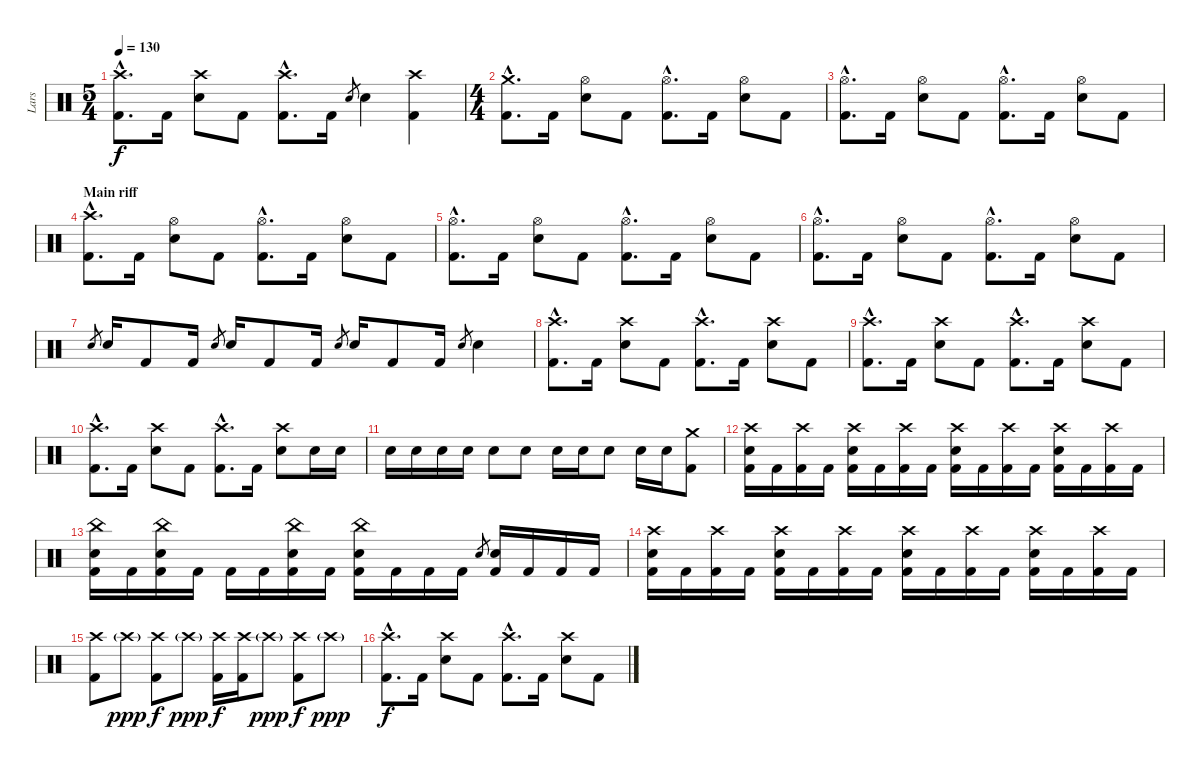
\track ("Lars" "Lars") {instrument percussion}
\staff {score}
\articulation defaults
\ts (5 4)
\tempo 130
\clef neutral
\ks c
("Kick (hit) 2"{hac} "Crash high (hit)"{hac}).8{d dy f} "Kick (hit) 2".16 ("Electric Snare (hit)" "Crash high (hit)").8 "Kick (hit) 2".8 ("Kick (hit) 2"{hac} "Crash high (hit)"{hac}).8{d} "Kick (hit) 2".16 "Electric Snare (hit)".8{gr} "Electric Snare (hit)".4 ("Kick (hit) 2" "Crash high (hit)").4 |
\ts (4 4)
\section ("" "")
("Kick (hit) 2"{hac} "Crash medium (hit)"{hac}).8{d} "Kick (hit) 2".16 ("Electric Snare (hit)" "Hi-Hat (open)").8 "Kick (hit) 2".8 ("Kick (hit) 2"{hac} "Hi-Hat (open)"{hac}).8{d} "Kick (hit) 2".16 ("Electric Snare (hit)" "Hi-Hat (open)").8 "Kick (hit) 2".8 |
("Kick (hit) 2"{hac} "Hi-Hat (open)"{hac}).8{d} "Kick (hit) 2".16 ("Electric Snare (hit)" "Hi-Hat (open)").8 "Kick (hit) 2".8 ("Kick (hit) 2"{hac} "Hi-Hat (open)"{hac}).8{d} "Kick (hit) 2".16 ("Electric Snare (hit)" "Hi-Hat (open)").8 "Kick (hit) 2".8 |
\section ("" "Main riff")
("Kick (hit) 2"{hac} "Crash high (hit)"{hac}).8{d} "Kick (hit) 2".16 ("Electric Snare (hit)" "Hi-Hat (open)").8 "Kick (hit) 2".8 ("Kick (hit) 2"{hac} "Hi-Hat (open)"{hac}).8{d} "Kick (hit) 2".16 ("Electric Snare (hit)" "Hi-Hat (open)").8 "Kick (hit) 2".8 |
("Kick (hit) 2"{hac} "Hi-Hat (open)"{hac}).8{d} "Kick (hit) 2".16 ("Electric Snare (hit)" "Hi-Hat (open)").8 "Kick (hit) 2".8 ("Kick (hit) 2"{hac} "Hi-Hat (open)"{hac}).8{d} "Kick (hit) 2".16 ("Electric Snare (hit)" "Hi-Hat (open)").8 "Kick (hit) 2".8 |
("Kick (hit) 2"{hac} "Hi-Hat (open)"{hac}).8{d} "Kick (hit) 2".16 ("Electric Snare (hit)" "Hi-Hat (open)").8 "Kick (hit) 2".8 ("Kick (hit) 2"{hac} "Hi-Hat (open)"{hac}).8{d} "Kick (hit) 2".16 ("Electric Snare (hit)" "Hi-Hat (open)").8 "Kick (hit) 2".8 |
"Electric Snare (hit)".8{gr} "Electric Snare (hit)".16 "Kick (hit) 2".8 "Kick (hit) 2".16 "Electric Snare (hit)".8{gr} "Electric Snare (hit)".16 "Kick (hit) 2".8 "Kick (hit) 2".16 "Electric Snare (hit)".8{gr} "Electric Snare (hit)".16 "Kick (hit) 2".8 "Kick (hit) 2".16 "Electric Snare (hit)".8{gr} "Electric Snare (hit)".4 |
\section ("" "")
("Kick (hit) 2"{hac} "Crash high (hit)"{hac}).8{d} "Kick (hit) 2".16 ("Electric Snare (hit)" "Crash high (hit)").8 "Kick (hit) 2".8 ("Kick (hit) 2"{hac} "Crash high (hit)"{hac}).8{d} "Kick (hit) 2".16 ("Electric Snare (hit)" "Crash high (hit)").8 "Kick (hit) 2".8 |
("Kick (hit) 2"{hac} "Crash high (hit)"{hac}).8{d} "Kick (hit) 2".16 ("Electric Snare (hit)" "Crash high (hit)").8 "Kick (hit) 2".8 ("Kick (hit) 2"{hac} "Crash high (hit)"{hac}).8{d} "Kick (hit) 2".16 ("Electric Snare (hit)" "Crash high (hit)").8 "Kick (hit) 2".8 |
("Kick (hit) 2"{hac} "Crash high (hit)"{hac}).8{d} "Kick (hit) 2".16 ("Electric Snare (hit)" "Crash high (hit)").8 "Kick (hit) 2".8 ("Kick (hit) 2"{hac} "Crash high (hit)"{hac}).8{d} "Kick (hit) 2".16 ("Electric Snare (hit)" "Crash high (hit)").8 "Electric Snare (hit)".16 "Electric Snare (hit)".16 |
"Electric Snare (hit)".16 "Electric Snare (hit)".16 "Electric Snare (hit)".16 "Electric Snare (hit)".16 "Electric Snare (hit)".8 "Electric Snare (hit)".8 "Electric Snare (hit)".16 "Electric Snare (hit)".16 "Electric Snare (hit)".8 "Electric Snare (hit)".16 "Electric Snare (hit)".16 ("Kick (hit) 2" "Crash medium (hit)").8 |
\section ("" "")
("Kick (hit) 2" "Electric Snare (hit)" "Crash high (hit)").16 "Kick (hit) 2".16 ("Kick (hit) 2" "Crash high (hit)").16 "Kick (hit) 2".16 ("Kick (hit) 2" "Electric Snare (hit)" "Crash high (hit)").16 "Kick (hit) 2".16 ("Kick (hit) 2" "Crash high (hit)").16 "Kick (hit) 2".16 ("Kick (hit) 2" "Electric Snare (hit)" "Crash high (hit)").16 "Kick (hit) 2".16 ("Kick (hit) 2" "Crash high (hit)").16 "Kick (hit) 2".16 ("Kick (hit) 2" "Electric Snare (hit)" "Crash high (hit)").16 "Kick (hit) 2".16 ("Kick (hit) 2" "Crash high (hit)").16 "Kick (hit) 2".16 |
("Kick (hit) 2" "Electric Snare (hit)" "China (hit)").16 "Kick (hit) 2".16 ("Kick (hit) 2" "Electric Snare (hit)" "China (hit)").16 "Kick (hit) 2".16 "Kick (hit) 2".16 "Kick (hit) 2".16 ("Kick (hit) 2" "Electric Snare (hit)" "China (hit)").16 "Kick (hit) 2".16 ("Kick (hit) 2" "Electric Snare (hit)" "China (hit)").16 "Kick (hit) 2".16 "Kick (hit) 2".16 "Kick (hit) 2".16 "Electric Snare (hit)".8{gr} ("Kick (hit) 2" "Electric Snare (hit)").16 "Kick (hit) 2".16 "Kick (hit) 2".16 "Kick (hit) 2".16 |
("Kick (hit) 2" "Electric Snare (hit)" "Crash high (hit)").16 "Kick (hit) 2".16 ("Kick (hit) 2" "Crash high (hit)").16 "Kick (hit) 2".16 ("Kick (hit) 2" "Electric Snare (hit)" "Crash high (hit)").16 "Kick (hit) 2".16 ("Kick (hit) 2" "Crash high (hit)").16 "Kick (hit) 2".16 ("Kick (hit) 2" "Electric Snare (hit)" "Crash high (hit)").16 "Kick (hit) 2".16 ("Kick (hit) 2" "Crash high (hit)").16 "Kick (hit) 2".16 ("Kick (hit) 2" "Electric Snare (hit)" "Crash high (hit)").16 "Kick (hit) 2".16 ("Kick (hit) 2" "Crash high (hit)").16 "Kick (hit) 2".16 |
("Kick (hit) 2" "Crash high (hit)").8 "Crash high (hit)"{g}.8{dy ppp} ("Kick (hit) 2" "Crash high (hit)").8{dy f} "Crash high (hit)"{g}.8{dy ppp} ("Kick (hit) 2" "Crash high (hit)").16{dy f} ("Kick (hit) 2" "Crash high (hit)").16 "Crash high (hit)"{g}.8{dy ppp} ("Kick (hit) 2" "Crash high (hit)").8{dy f} "Crash high (hit)"{g}.8{dy ppp} |
\section ("" "")
("Kick (hit) 2"{hac} "Crash high (hit)"{hac}).8{d dy f} "Kick (hit) 2".16 ("Electric Snare (hit)" "Crash high (hit)").8 "Kick (hit) 2".8 ("Kick (hit) 2"{hac} "Crash high (hit)"{hac}).8{d} "Kick (hit) 2".16 ("Electric Snare (hit)" "Crash high (hit)").8 "Kick (hit) 2".8
